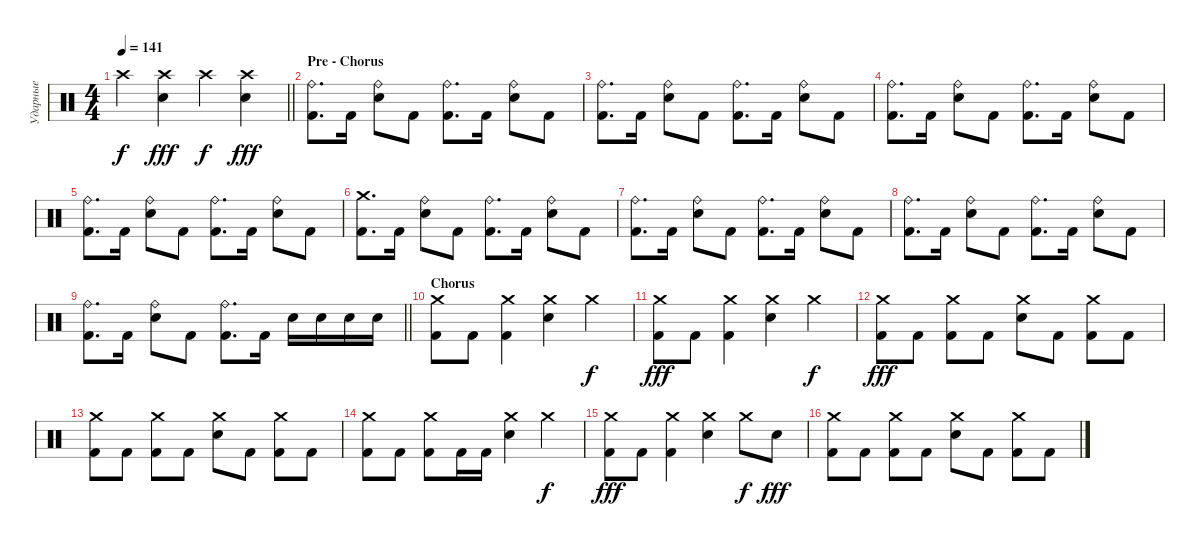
\track ("Ударные" "Ударные") {instrument percussion}
\staff {score}
\articulation defaults
\ts (4 4)
\tempo 141
\clef neutral
\barLineRight lightlight
\ks c "Crash high (hit)".4{dy f}
("Crash high (hit)" "Electric Snare (hit)").4{dy fff} "Crash high (hit)".4{dy f} ("Crash high (hit)" "Electric Snare (hit)").4{dy fff} |
\section ("" "Pre - Chorus")
("Ride (bell)" "Kick (hit) 2").8{d} "Kick (hit) 2".16 ("Ride (bell)" "Electric Snare (hit)").8 "Kick (hit) 2".8 ("Ride (bell)" "Kick (hit) 2").8{d} "Kick (hit) 2".16 ("Ride (bell)" "Electric Snare (hit)").8 "Kick (hit) 2".8 |
("Ride (bell)" "Kick (hit) 2").8{d} "Kick (hit) 2".16 ("Ride (bell)" "Electric Snare (hit)").8 "Kick (hit) 2".8 ("Ride (bell)" "Kick (hit) 2").8{d} "Kick (hit) 2".16 ("Ride (bell)" "Electric Snare (hit)").8 "Kick (hit) 2".8 |
("Ride (bell)" "Kick (hit) 2").8{d} "Kick (hit) 2".16 ("Ride (bell)" "Electric Snare (hit)").8 "Kick (hit) 2".8 ("Ride (bell)" "Kick (hit) 2").8{d} "Kick (hit) 2".16 ("Ride (bell)" "Electric Snare (hit)").8 "Kick (hit) 2".8 |
("Ride (bell)" "Kick (hit) 2").8{d} "Kick (hit) 2".16 ("Ride (bell)" "Electric Snare (hit)").8 "Kick (hit) 2".8 ("Ride (bell)" "Kick (hit) 2").8{d} "Kick (hit) 2".16 ("Ride (bell)" "Electric Snare (hit)").8 "Kick (hit) 2".8 |
("Crash medium (hit)" "Kick (hit) 2").8{d} "Kick (hit) 2".16 ("Ride (bell)" "Electric Snare (hit)").8 "Kick (hit) 2".8 ("Ride (bell)" "Kick (hit) 2").8{d} "Kick (hit) 2".16 ("Ride (bell)" "Electric Snare (hit)").8 "Kick (hit) 2".8 |
("Ride (bell)" "Kick (hit) 2").8{d} "Kick (hit) 2".16 ("Ride (bell)" "Electric Snare (hit)").8 "Kick (hit) 2".8 ("Ride (bell)" "Kick (hit) 2").8{d} "Kick (hit) 2".16 ("Ride (bell)" "Electric Snare (hit)").8 "Kick (hit) 2".8 |
("Ride (bell)" "Kick (hit) 2").8{d} "Kick (hit) 2".16 ("Ride (bell)" "Electric Snare (hit)").8 "Kick (hit) 2".8 ("Ride (bell)" "Kick (hit) 2").8{d} "Kick (hit) 2".16 ("Ride (bell)" "Electric Snare (hit)").8 "Kick (hit) 2".8 |
\barLineRight lightlight
("Ride (bell)" "Kick (hit) 2").8{d} "Kick (hit) 2".16 ("Ride (bell)" "Electric Snare (hit)").8 "Kick (hit) 2".8 ("Ride (bell)" "Kick (hit) 2").8{d} "Kick (hit) 2".16 "Electric Snare (hit)".16 "Electric Snare (hit)".16 "Electric Snare (hit)".16 "Electric Snare (hit)".16 |
\section ("" "Chorus")
("Crash medium (hit)" "Kick (hit) 2").8 "Kick (hit) 2".8 ("Crash medium (hit)" "Kick (hit) 2").4 ("Crash medium (hit)" "Electric Snare (hit)").4 "Crash medium (hit)".4{dy f} |
("Crash medium (hit)" "Kick (hit) 2").8{dy fff} "Kick (hit) 2".8 ("Crash medium (hit)" "Kick (hit) 2").4 ("Crash medium (hit)" "Electric Snare (hit)").4 "Crash medium (hit)".4{dy f} |
("Crash medium (hit)" "Kick (hit) 2").8{dy fff} "Kick (hit) 2".8 ("Crash medium (hit)" "Kick (hit) 2").8 "Kick (hit) 2".8 ("Crash medium (hit)" "Electric Snare (hit)").8 "Kick (hit) 2".8 ("Crash medium (hit)" "Kick (hit) 2").8 "Kick (hit) 2".8 |
("Crash medium (hit)" "Kick (hit) 2").8 "Kick (hit) 2".8 ("Crash medium (hit)" "Kick (hit) 2").8 "Kick (hit) 2".8 ("Crash medium (hit)" "Electric Snare (hit)").8 "Kick (hit) 2".8 ("Crash medium (hit)" "Kick (hit) 2").8 "Kick (hit) 2".8 |
("Crash medium (hit)" "Kick (hit) 2").8 "Kick (hit) 2".8 ("Crash medium (hit)" "Kick (hit) 2").8 "Kick (hit) 2".16 "Kick (hit) 2".16 ("Crash medium (hit)" "Electric Snare (hit)").4 "Crash medium (hit)".4{dy f} |
("Crash medium (hit)" "Kick (hit) 2").8{dy fff} "Kick (hit) 2".8 ("Crash medium (hit)" "Kick (hit) 2").4 ("Crash medium (hit)" "Electric Snare (hit)").4 "Crash medium (hit)".8{dy f} "Electric Snare (hit)".8{dy fff} |
("Crash medium (hit)" "Kick (hit) 2").8 "Kick (hit) 2".8 ("Crash medium (hit)" "Kick (hit) 2").8 "Kick (hit) 2".8 ("Crash medium (hit)" "Electric Snare (hit)").8 "Kick (hit) 2".8 ("Crash medium (hit)" "Kick (hit) 2").8 "Kick (hit) 2".8
